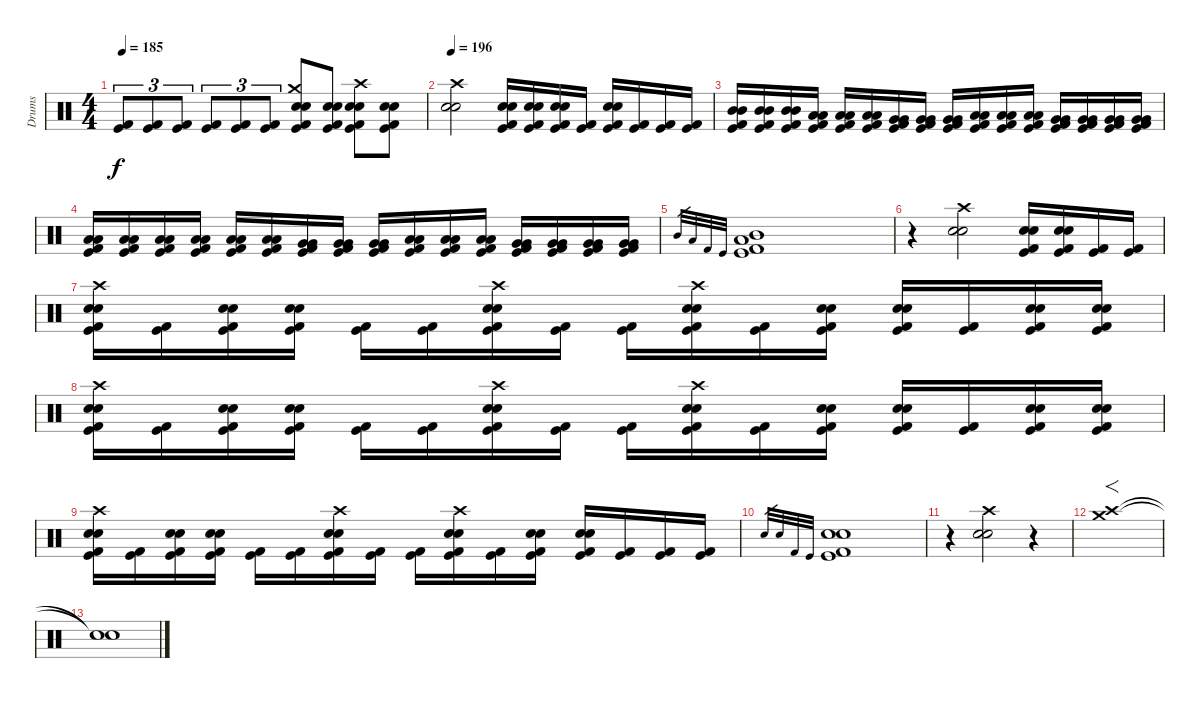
\track ("Drums" "Drums") {instrument percussion}
\staff {score}
\articulation defaults
\ts (4 4)
\tempo 185
\clef neutral
\ks c
("Kick (hit) 2" "Kick (hit)").8{tu (3 2) dy f} ("Kick (hit) 2" "Kick (hit)").8{tu (3 2)} ("Kick (hit) 2" "Kick (hit)").8{tu (3 2)} ("Kick (hit) 2" "Kick (hit)").8{tu (3 2)} ("Kick (hit) 2" "Kick (hit)").8{tu (3 2)} ("Kick (hit) 2" "Kick (hit)").8{tu (3 2)} ("Crash medium (hit)" "Electric Snare (hit)" "Snare (hit) 2" "Kick (hit) 2" "Kick (hit)").8 ("Electric Snare (hit)" "Snare (hit) 2" "Kick (hit) 2" "Kick (hit)").8 ("Crash high (hit)" "Electric Snare (hit)" "Snare (hit) 2" "Kick (hit) 2" "Kick (hit)").8 ("Electric Snare (hit)" "Snare (hit) 2" "Kick (hit) 2" "Kick (hit)").8 |
\tempo 196
("Crash high (hit)" "Electric Snare (hit)" "Snare (hit) 2").2 ("Electric Snare (hit)" "Snare (hit) 2" "Kick (hit) 2" "Kick (hit)").16 ("Electric Snare (hit)" "Snare (hit) 2" "Kick (hit) 2" "Kick (hit)").16 ("Electric Snare (hit)" "Snare (hit) 2" "Kick (hit) 2" "Kick (hit)").16 ("Kick (hit) 2" "Kick (hit)").16 ("Electric Snare (hit)" "Snare (hit) 2" "Kick (hit) 2" "Kick (hit)").16 ("Kick (hit) 2" "Kick (hit)").16 ("Kick (hit) 2" "Kick (hit)").16 ("Kick (hit) 2" "Kick (hit)").16 |
("Mid Tom (hit)" "Mid Tom (hit)" "Kick (hit) 2" "Kick (hit)").16 ("Mid Tom (hit)" "Mid Tom (hit)" "Kick (hit) 2" "Kick (hit)").16 ("Mid Tom (hit)" "Mid Tom (hit)" "Kick (hit) 2" "Kick (hit)").16 ("Low Tom (hit)" "Low Tom (hit)" "Kick (hit) 2" "Kick (hit)").16 ("Low Tom (hit)" "Low Tom (hit)" "Kick (hit) 2" "Kick (hit)").16 ("Low Tom (hit)" "Low Tom (hit)" "Kick (hit) 2" "Kick (hit)").16 ("Very Low Tom (hit)" "Very Low Tom (hit)" "Kick (hit) 2" "Kick (hit)").16 ("Very Low Tom (hit)" "Very Low Tom (hit)" "Kick (hit) 2" "Kick (hit)").16 ("Very Low Tom (hit)" "Very Low Tom (hit)" "Kick (hit) 2" "Kick (hit)").16 ("Low Tom (hit)" "Low Tom (hit)" "Kick (hit) 2" "Kick (hit)").16 ("Low Tom (hit)" "Low Tom (hit)" "Kick (hit) 2" "Kick (hit)").16 ("Low Tom (hit)" "Low Tom (hit)" "Kick (hit) 2" "Kick (hit)").16 ("Very Low Tom (hit)" "Very Low Tom (hit)" "Kick (hit) 2" "Kick (hit)").16 ("Very Low Tom (hit)" "Very Low Tom (hit)" "Kick (hit) 2" "Kick (hit)").16 ("Very Low Tom (hit)" "Very Low Tom (hit)" "Kick (hit) 2" "Kick (hit)").16 ("Very Low Tom (hit)" "Very Low Tom (hit)" "Kick (hit) 2" "Kick (hit)").16 |
("Low Tom (hit)" "Low Tom (hit)" "Kick (hit) 2" "Kick (hit)").16 ("Low Tom (hit)" "Low Tom (hit)" "Kick (hit) 2" "Kick (hit)").16 ("Low Tom (hit)" "Low Tom (hit)" "Kick (hit) 2" "Kick (hit)").16 ("Low Tom (hit)" "Low Tom (hit)" "Kick (hit) 2" "Kick (hit)").16 ("Low Tom (hit)" "Low Tom (hit)" "Kick (hit) 2" "Kick (hit)").16 ("Low Tom (hit)" "Low Tom (hit)" "Kick (hit) 2" "Kick (hit)").16 ("Very Low Tom (hit)" "Very Low Tom (hit)" "Kick (hit) 2" "Kick (hit)").16 ("Very Low Tom (hit)" "Very Low Tom (hit)" "Kick (hit) 2" "Kick (hit)").16 ("Very Low Tom (hit)" "Very Low Tom (hit)" "Kick (hit) 2" "Kick (hit)").16 ("Low Tom (hit)" "Low Tom (hit)" "Kick (hit) 2" "Kick (hit)").16 ("Low Tom (hit)" "Low Tom (hit)" "Kick (hit) 2" "Kick (hit)").16 ("Low Tom (hit)" "Low Tom (hit)" "Kick (hit) 2" "Kick (hit)").16 ("Very Low Tom (hit)" "Very Low Tom (hit)" "Kick (hit) 2" "Kick (hit)").16 ("Very Low Tom (hit)" "Very Low Tom (hit)" "Kick (hit) 2" "Kick (hit)").16 ("Very Low Tom (hit)" "Very Low Tom (hit)" "Kick (hit) 2" "Kick (hit)").16 ("Very Low Tom (hit)" "Very Low Tom (hit)" "Kick (hit) 2" "Kick (hit)").16 |
"Mid Tom (hit)".32{gr} "Low Tom (hit)".32{gr} "Kick (hit) 2".32{gr} "Kick (hit)".32{gr} ("Mid Tom (hit)" "Low Tom (hit)" "Kick (hit) 2" "Kick (hit)").1 |
r.4 ("Crash high (hit)" "Electric Snare (hit)" "Snare (hit) 2").2 ("Electric Snare (hit)" "Snare (hit) 2" "Kick (hit) 2" "Kick (hit)").16 ("Electric Snare (hit)" "Snare (hit) 2" "Kick (hit) 2" "Kick (hit)").16 ("Kick (hit) 2" "Kick (hit)").16 ("Kick (hit) 2" "Kick (hit)").16 |
("Crash high (hit)" "Electric Snare (hit)" "Snare (hit) 2" "Kick (hit) 2" "Kick (hit)").16 ("Kick (hit) 2" "Kick (hit)").16 ("Electric Snare (hit)" "Snare (hit) 2" "Kick (hit) 2" "Kick (hit)").16 ("Electric Snare (hit)" "Snare (hit) 2" "Kick (hit) 2" "Kick (hit)").16 ("Kick (hit) 2" "Kick (hit)").16 ("Kick (hit) 2" "Kick (hit)").16 ("Crash high (hit)" "Electric Snare (hit)" "Snare (hit) 2" "Kick (hit) 2" "Kick (hit)").16 ("Kick (hit) 2" "Kick (hit)").16 ("Kick (hit) 2" "Kick (hit)").16 ("Crash high (hit)" "Electric Snare (hit)" "Snare (hit) 2" "Kick (hit) 2" "Kick (hit)").16 ("Kick (hit) 2" "Kick (hit)").16 ("Electric Snare (hit)" "Snare (hit) 2" "Kick (hit) 2" "Kick (hit)").16 ("Electric Snare (hit)" "Snare (hit) 2" "Kick (hit) 2" "Kick (hit)").16 ("Kick (hit) 2" "Kick (hit)").16 ("Electric Snare (hit)" "Snare (hit) 2" "Kick (hit) 2" "Kick (hit)").16 ("Electric Snare (hit)" "Snare (hit) 2" "Kick (hit) 2" "Kick (hit)").16 |
("Crash high (hit)" "Electric Snare (hit)" "Snare (hit) 2" "Kick (hit) 2" "Kick (hit)").16 ("Kick (hit) 2" "Kick (hit)").16 ("Electric Snare (hit)" "Snare (hit) 2" "Kick (hit) 2" "Kick (hit)").16 ("Electric Snare (hit)" "Snare (hit) 2" "Kick (hit) 2" "Kick (hit)").16 ("Kick (hit) 2" "Kick (hit)").16 ("Kick (hit) 2" "Kick (hit)").16 ("Crash high (hit)" "Electric Snare (hit)" "Snare (hit) 2" "Kick (hit) 2" "Kick (hit)").16 ("Kick (hit) 2" "Kick (hit)").16 ("Kick (hit) 2" "Kick (hit)").16 ("Crash high (hit)" "Electric Snare (hit)" "Snare (hit) 2" "Kick (hit) 2" "Kick (hit)").16 ("Kick (hit) 2" "Kick (hit)").16 ("Electric Snare (hit)" "Snare (hit) 2" "Kick (hit) 2" "Kick (hit)").16 ("Electric Snare (hit)" "Snare (hit) 2" "Kick (hit) 2" "Kick (hit)").16 ("Kick (hit) 2" "Kick (hit)").16 ("Electric Snare (hit)" "Snare (hit) 2" "Kick (hit) 2" "Kick (hit)").16 ("Electric Snare (hit)" "Snare (hit) 2" "Kick (hit) 2" "Kick (hit)").16 |
("Crash high (hit)" "Electric Snare (hit)" "Snare (hit) 2" "Kick (hit) 2" "Kick (hit)").16 ("Kick (hit) 2" "Kick (hit)").16 ("Electric Snare (hit)" "Snare (hit) 2" "Kick (hit) 2" "Kick (hit)").16 ("Electric Snare (hit)" "Snare (hit) 2" "Kick (hit) 2" "Kick (hit)").16 ("Kick (hit) 2" "Kick (hit)").16 ("Kick (hit) 2" "Kick (hit)").16 ("Crash high (hit)" "Electric Snare (hit)" "Snare (hit) 2" "Kick (hit) 2" "Kick (hit)").16 ("Kick (hit) 2" "Kick (hit)").16 ("Kick (hit) 2" "Kick (hit)").16 ("Crash high (hit)" "Electric Snare (hit)" "Snare (hit) 2" "Kick (hit) 2" "Kick (hit)").16 ("Kick (hit) 2" "Kick (hit)").16 ("Electric Snare (hit)" "Snare (hit) 2" "Kick (hit) 2" "Kick (hit)").16 ("Electric Snare (hit)" "Snare (hit) 2" "Kick (hit) 2" "Kick (hit)").16 ("Kick (hit) 2" "Kick (hit)").16 ("Kick (hit) 2" "Kick (hit)").16 ("Kick (hit) 2" "Kick (hit)").16 |
"Electric Snare (hit)".32{gr} "Snare (hit) 2".32{gr} "Kick (hit) 2".32{gr} "Kick (hit)".32{gr} ("Electric Snare (hit)" "Snare (hit) 2" "Kick (hit) 2" "Kick (hit)").1 |
r.4 ("Crash high (hit)" "Electric Snare (hit)" "Snare (hit) 2").2 r.4 |
("Crash medium (hit)" "Crash high (hit)").1{f} |
("Snare (hit)"{t} "Snare (hit)"{t}).1
